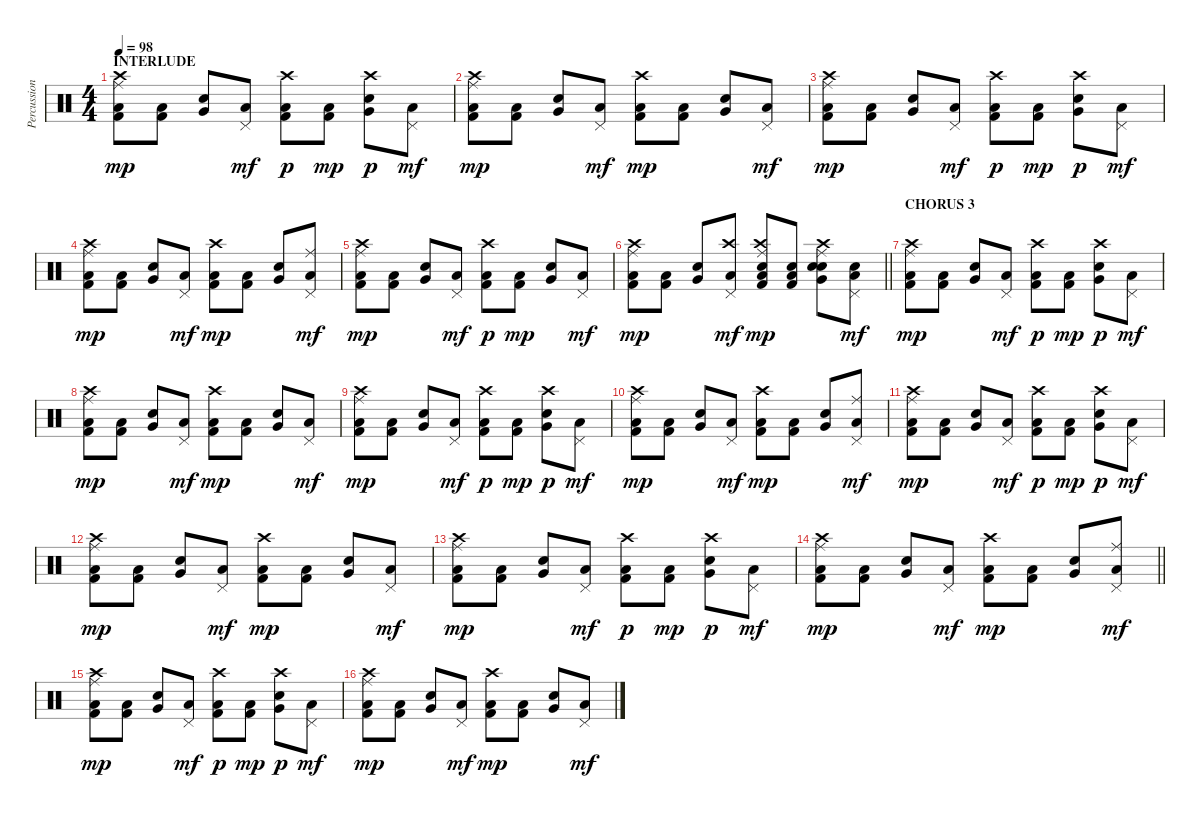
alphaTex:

\track ("Percussion" "Percussion") {instrument percussion}
\staff {score}
\articulation defaults
\ts (4 4)
\section ("" "INTERLUDE")
\tempo 98
\clef neutral
\ks c
("Kick (hit) 2" "Low Floor Tom (hit)" "Crash high (hit)" "Ride (middle)").8{dy mp} ("Kick (hit) 2" "Low Floor Tom (hit)").8 ("Snare (hit) 2" "Very Low Tom (hit)").8 ("Low Floor Tom (hit)" "Pedal Hi-Hat (hit)").8{dy mf} ("Kick (hit) 2" "Low Floor Tom (hit)" "Crash high (hit)").8{dy p} ("Kick (hit) 2" "Low Floor Tom (hit)").8{dy mp} ("Snare (hit) 2" "Very Low Tom (hit)" "Crash high (hit)").8{dy p} ("Low Floor Tom (hit)" "Pedal Hi-Hat (hit)").8{dy mf} |
("Kick (hit) 2" "Low Floor Tom (hit)" "Crash high (hit)" "Ride (middle)").8{dy mp} ("Kick (hit) 2" "Low Floor Tom (hit)").8 ("Snare (hit) 2" "Very Low Tom (hit)").8 ("Low Floor Tom (hit)" "Pedal Hi-Hat (hit)").8{dy mf} ("Kick (hit) 2" "Low Floor Tom (hit)" "Crash high (hit)").8{dy mp} ("Kick (hit) 2" "Low Floor Tom (hit)").8 ("Snare (hit) 2" "Very Low Tom (hit)").8 ("Low Floor Tom (hit)" "Pedal Hi-Hat (hit)").8{dy mf} |
("Kick (hit) 2" "Low Floor Tom (hit)" "Crash high (hit)" "Ride (middle)").8{dy mp} ("Kick (hit) 2" "Low Floor Tom (hit)").8 ("Snare (hit) 2" "Very Low Tom (hit)").8 ("Low Floor Tom (hit)" "Pedal Hi-Hat (hit)").8{dy mf} ("Kick (hit) 2" "Low Floor Tom (hit)" "Crash high (hit)").8{dy p} ("Kick (hit) 2" "Low Floor Tom (hit)").8{dy mp} ("Snare (hit) 2" "Very Low Tom (hit)" "Crash high (hit)").8{dy p} ("Low Floor Tom (hit)" "Pedal Hi-Hat (hit)").8{dy mf} |
("Kick (hit) 2" "Low Floor Tom (hit)" "Crash high (hit)" "Ride (middle)").8{dy mp} ("Kick (hit) 2" "Low Floor Tom (hit)").8 ("Snare (hit) 2" "Very Low Tom (hit)").8 ("Low Floor Tom (hit)" "Pedal Hi-Hat (hit)").8{dy mf} ("Kick (hit) 2" "Low Floor Tom (hit)" "Crash high (hit)").8{dy mp} ("Kick (hit) 2" "Low Floor Tom (hit)").8 ("Snare (hit) 2" "Very Low Tom (hit)").8 ("Low Floor Tom (hit)" "Ride (middle)" "Pedal Hi-Hat (hit)").8{dy mf} |
("Kick (hit) 2" "Low Floor Tom (hit)" "Crash high (hit)" "Ride (middle)").8{dy mp} ("Kick (hit) 2" "Low Floor Tom (hit)").8 ("Snare (hit) 2" "Very Low Tom (hit)").8 ("Low Floor Tom (hit)" "Pedal Hi-Hat (hit)").8{dy mf} ("Kick (hit) 2" "Low Floor Tom (hit)" "Crash high (hit)").8{dy p} ("Kick (hit) 2" "Low Floor Tom (hit)").8{dy mp} ("Snare (hit) 2" "Very Low Tom (hit)").8 ("Low Floor Tom (hit)" "Pedal Hi-Hat (hit)").8{dy mf} |
\barLineRight lightlight
("Kick (hit) 2" "Low Floor Tom (hit)" "Crash high (hit)" "Ride (middle)").8{dy mp} ("Kick (hit) 2" "Low Floor Tom (hit)").8 ("Snare (hit) 2" "Very Low Tom (hit)").8 ("Low Floor Tom (hit)" "Crash high (hit)" "Pedal Hi-Hat (hit)").8{dy mf} ("Kick (hit) 2" "Snare (hit) 2" "Low Floor Tom (hit)" "Crash high (hit)" "Ride (middle)").8{dy mp} ("Kick (hit) 2" "Snare (hit) 2" "Low Floor Tom (hit)").8 ("Snare (hit) 2" "Snare (hit) 2" "Very Low Tom (hit)" "Crash high (hit)" "Ride (middle)").8 ("Snare (hit) 2" "Low Floor Tom (hit)" "Pedal Hi-Hat (hit)").8{dy mf} |
\section ("" "CHORUS 3")
("Kick (hit) 2" "Low Floor Tom (hit)" "Crash high (hit)" "Ride (middle)").8{dy mp} ("Kick (hit) 2" "Low Floor Tom (hit)").8 ("Snare (hit) 2" "Very Low Tom (hit)").8 ("Low Floor Tom (hit)" "Pedal Hi-Hat (hit)").8{dy mf} ("Kick (hit) 2" "Low Floor Tom (hit)" "Crash high (hit)").8{dy p} ("Kick (hit) 2" "Low Floor Tom (hit)").8{dy mp} ("Snare (hit) 2" "Very Low Tom (hit)" "Crash high (hit)").8{dy p} ("Low Floor Tom (hit)" "Pedal Hi-Hat (hit)").8{dy mf} |
("Kick (hit) 2" "Low Floor Tom (hit)" "Crash high (hit)" "Ride (middle)").8{dy mp} ("Kick (hit) 2" "Low Floor Tom (hit)").8 ("Snare (hit) 2" "Very Low Tom (hit)").8 ("Low Floor Tom (hit)" "Pedal Hi-Hat (hit)").8{dy mf} ("Kick (hit) 2" "Low Floor Tom (hit)" "Crash high (hit)").8{dy mp} ("Kick (hit) 2" "Low Floor Tom (hit)").8 ("Snare (hit) 2" "Very Low Tom (hit)").8 ("Low Floor Tom (hit)" "Pedal Hi-Hat (hit)").8{dy mf} |
("Kick (hit) 2" "Low Floor Tom (hit)" "Crash high (hit)" "Ride (middle)").8{dy mp} ("Kick (hit) 2" "Low Floor Tom (hit)").8 ("Snare (hit) 2" "Very Low Tom (hit)").8 ("Low Floor Tom (hit)" "Pedal Hi-Hat (hit)").8{dy mf} ("Kick (hit) 2" "Low Floor Tom (hit)" "Crash high (hit)").8{dy p} ("Kick (hit) 2" "Low Floor Tom (hit)").8{dy mp} ("Snare (hit) 2" "Very Low Tom (hit)" "Crash high (hit)").8{dy p} ("Low Floor Tom (hit)" "Pedal Hi-Hat (hit)").8{dy mf} |
("Kick (hit) 2" "Low Floor Tom (hit)" "Crash high (hit)" "Ride (middle)").8{dy mp} ("Kick (hit) 2" "Low Floor Tom (hit)").8 ("Snare (hit) 2" "Very Low Tom (hit)").8 ("Low Floor Tom (hit)" "Pedal Hi-Hat (hit)").8{dy mf} ("Kick (hit) 2" "Low Floor Tom (hit)" "Crash high (hit)").8{dy mp} ("Kick (hit) 2" "Low Floor Tom (hit)").8 ("Snare (hit) 2" "Very Low Tom (hit)").8 ("Low Floor Tom (hit)" "Ride (middle)" "Pedal Hi-Hat (hit)").8{dy mf} |
("Kick (hit) 2" "Low Floor Tom (hit)" "Crash high (hit)" "Ride (middle)").8{dy mp} ("Kick (hit) 2" "Low Floor Tom (hit)").8 ("Snare (hit) 2" "Very Low Tom (hit)").8 ("Low Floor Tom (hit)" "Pedal Hi-Hat (hit)").8{dy mf} ("Kick (hit) 2" "Low Floor Tom (hit)" "Crash high (hit)").8{dy p} ("Kick (hit) 2" "Low Floor Tom (hit)").8{dy mp} ("Snare (hit) 2" "Very Low Tom (hit)" "Crash high (hit)").8{dy p} ("Low Floor Tom (hit)" "Pedal Hi-Hat (hit)").8{dy mf} |
("Kick (hit) 2" "Low Floor Tom (hit)" "Crash high (hit)" "Ride (middle)").8{dy mp} ("Kick (hit) 2" "Low Floor Tom (hit)").8 ("Snare (hit) 2" "Very Low Tom (hit)").8 ("Low Floor Tom (hit)" "Pedal Hi-Hat (hit)").8{dy mf} ("Kick (hit) 2" "Low Floor Tom (hit)" "Crash high (hit)").8{dy mp} ("Kick (hit) 2" "Low Floor Tom (hit)").8 ("Snare (hit) 2" "Very Low Tom (hit)").8 ("Low Floor Tom (hit)" "Pedal Hi-Hat (hit)").8{dy mf} |
("Kick (hit) 2" "Low Floor Tom (hit)" "Crash high (hit)" "Ride (middle)").8{dy mp} ("Kick (hit) 2" "Low Floor Tom (hit)").8 ("Snare (hit) 2" "Very Low Tom (hit)").8 ("Low Floor Tom (hit)" "Pedal Hi-Hat (hit)").8{dy mf} ("Kick (hit) 2" "Low Floor Tom (hit)" "Crash high (hit)").8{dy p} ("Kick (hit) 2" "Low Floor Tom (hit)").8{dy mp} ("Snare (hit) 2" "Very Low Tom (hit)" "Crash high (hit)").8{dy p} ("Low Floor Tom (hit)" "Pedal Hi-Hat (hit)").8{dy mf} |
\barLineRight lightlight
("Kick (hit) 2" "Low Floor Tom (hit)" "Crash high (hit)" "Ride (middle)").8{dy mp} ("Kick (hit) 2" "Low Floor Tom (hit)").8 ("Snare (hit) 2" "Very Low Tom (hit)").8 ("Low Floor Tom (hit)" "Pedal Hi-Hat (hit)").8{dy mf} ("Kick (hit) 2" "Low Floor Tom (hit)" "Crash high (hit)").8{dy mp} ("Kick (hit) 2" "Low Floor Tom (hit)").8 ("Snare (hit) 2" "Very Low Tom (hit)").8 ("Low Floor Tom (hit)" "Ride (middle)" "Pedal Hi-Hat (hit)").8{dy mf} |
\section ("" "_")
("Kick (hit) 2" "Low Floor Tom (hit)" "Crash high (hit)" "Ride (middle)").8{dy mp} ("Kick (hit) 2" "Low Floor Tom (hit)").8 ("Snare (hit) 2" "Very Low Tom (hit)").8 ("Low Floor Tom (hit)" "Pedal Hi-Hat (hit)").8{dy mf} ("Kick (hit) 2" "Low Floor Tom (hit)" "Crash high (hit)").8{dy p} ("Kick (hit) 2" "Low Floor Tom (hit)").8{dy mp} ("Snare (hit) 2" "Very Low Tom (hit)" "Crash high (hit)").8{dy p} ("Low Floor Tom (hit)" "Pedal Hi-Hat (hit)").8{dy mf} |
("Kick (hit) 2" "Low Floor Tom (hit)" "Crash high (hit)" "Ride (middle)").8{dy mp} ("Kick (hit) 2" "Low Floor Tom (hit)").8 ("Snare (hit) 2" "Very Low Tom (hit)").8 ("Low Floor Tom (hit)" "Pedal Hi-Hat (hit)").8{dy mf} ("Kick (hit) 2" "Low Floor Tom (hit)" "Crash high (hit)").8{dy mp} ("Kick (hit) 2" "Low Floor Tom (hit)").8 ("Snare (hit) 2" "Very Low Tom (hit)").8 ("Low Floor Tom (hit)" "Pedal Hi-Hat (hit)").8{dy mf}
